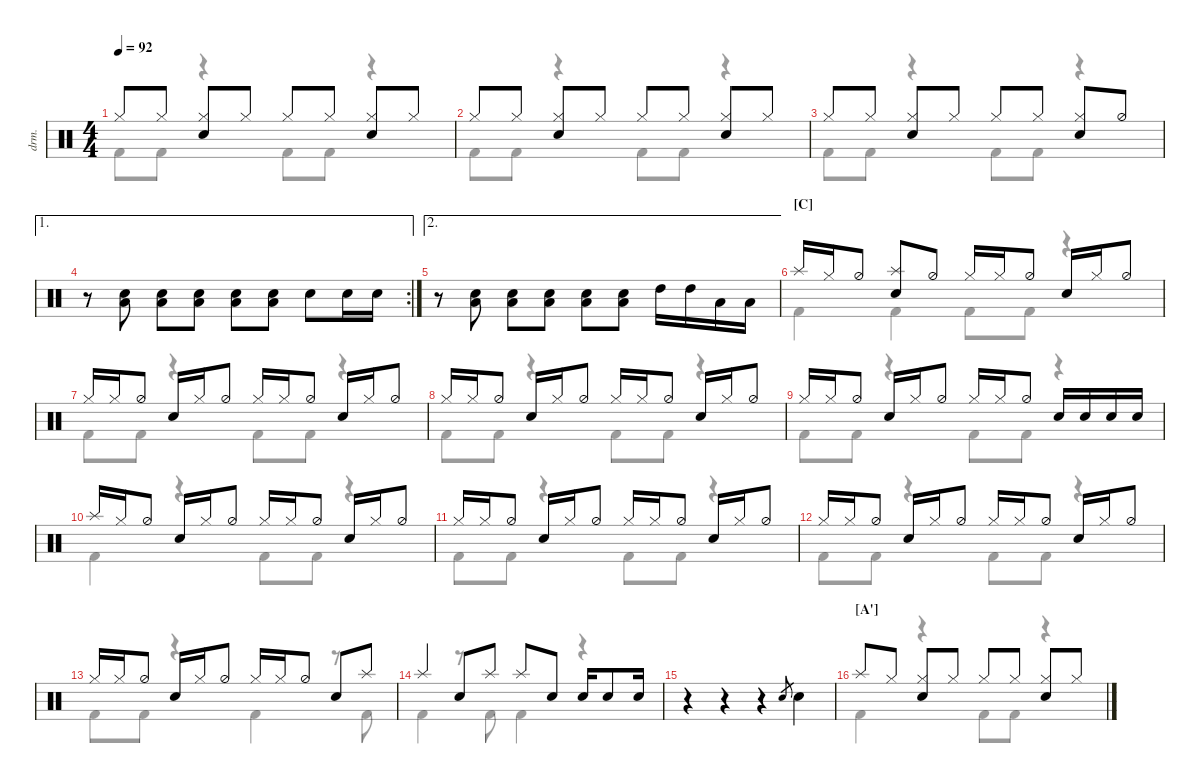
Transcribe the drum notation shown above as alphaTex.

\defaultSystemsLayout 4
\hideDynamics
\bracketExtendMode nobrackets
\track ("Drumkit" "drm.") {defaultSystemsLayout 4 instrument percussion}
\staff {score}
\articulation defaults
\voice
\ts (4 4)
\tempo 92
\clef neutral
\ks c "Hi-Hat (closed)".8{dy mf beam Up} "Hi-Hat (closed)".8{beam Up}
("Hi-Hat (closed)" "Snare (hit) 2").8{beam Up} "Hi-Hat (closed)".8{beam Up} "Hi-Hat (closed)".8{beam Up} "Hi-Hat (closed)".8{beam Up} ("Hi-Hat (closed)" "Snare (hit) 2").8{beam Up} "Hi-Hat (closed)".8{beam Up} |
"Hi-Hat (closed)".8{beam Up} "Hi-Hat (closed)".8{beam Up} ("Hi-Hat (closed)" "Snare (hit) 2").8{beam Up} "Hi-Hat (closed)".8{beam Up} "Hi-Hat (closed)".8{beam Up} "Hi-Hat (closed)".8{beam Up} ("Hi-Hat (closed)" "Snare (hit) 2").8{beam Up} "Hi-Hat (closed)".8{beam Up} |
"Hi-Hat (closed)".8{beam Up} "Hi-Hat (closed)".8{beam Up} ("Hi-Hat (closed)" "Snare (hit) 2").8{beam Up} "Hi-Hat (closed)".8{beam Up} "Hi-Hat (closed)".8{beam Up} "Hi-Hat (closed)".8{beam Up} ("Hi-Hat (closed)" "Snare (hit) 2").8{beam Up} "Hi-Hat (half)".8{beam Up} |
\ae 1
\rc 2
r.8{beam Down} ("Low Tom (hit)" "Snare (hit) 2").8{beam Down} ("Low Tom (hit)" "Snare (hit) 2").8{beam Down} ("Low Tom (hit)" "Snare (hit) 2").8{beam Down} ("Low Tom (hit)" "Snare (hit) 2").8{beam Down} ("Low Tom (hit)" "Snare (hit) 2").8{beam Down} "Snare (hit) 2".8{beam Down} "Snare (hit) 2".16{beam Down} "Snare (hit) 2".16{beam Down} |
\ae 2
r.8{beam Down} ("Low Tom (hit)" "Snare (hit) 2").8{beam Down} ("Low Tom (hit)" "Snare (hit) 2").8{beam Down} ("Low Tom (hit)" "Snare (hit) 2").8{beam Down} ("Low Tom (hit)" "Snare (hit) 2").8{beam Down} ("Low Tom (hit)" "Snare (hit) 2").8{beam Down} "High Tom (hit)".16{beam Down} "High Tom (hit)".16{beam Down} "Low Tom (hit)".16{beam Down} "Low Tom (hit)".16{beam Down} |
\section ("C" "")
"Splash (hit)".16{beam Up} "Hi-Hat (closed)".16{beam Up} "Hi-Hat (half)".8{beam Up} ("Splash (hit)" "Snare (hit) 2").8{beam Up} "Hi-Hat (half)".8{beam Up} "Hi-Hat (closed)".16{beam Up} "Hi-Hat (closed)".16{beam Up} "Hi-Hat (half)".8{beam Up} "Snare (hit) 2".16{beam Up} "Hi-Hat (closed)".16{beam Up} "Hi-Hat (half)".8{beam Up} |
"Hi-Hat (closed)".16{beam Up} "Hi-Hat (closed)".16{beam Up} "Hi-Hat (half)".8{beam Up} "Snare (hit) 2".16{beam Up} "Hi-Hat (closed)".16{beam Up} "Hi-Hat (half)".8{beam Up} "Hi-Hat (closed)".16{beam Up} "Hi-Hat (closed)".16{beam Up} "Hi-Hat (half)".8{beam Up} "Snare (hit) 2".16{beam Up} "Hi-Hat (closed)".16{beam Up} "Hi-Hat (half)".8{beam Up} |
"Hi-Hat (closed)".16{beam Up} "Hi-Hat (closed)".16{beam Up} "Hi-Hat (half)".8{beam Up} "Snare (hit) 2".16{beam Up} "Hi-Hat (closed)".16{beam Up} "Hi-Hat (half)".8{beam Up} "Hi-Hat (closed)".16{beam Up} "Hi-Hat (closed)".16{beam Up} "Hi-Hat (half)".8{beam Up} "Snare (hit) 2".16{beam Up} "Hi-Hat (closed)".16{beam Up} "Hi-Hat (half)".8{beam Up} |
"Hi-Hat (closed)".16{beam Up} "Hi-Hat (closed)".16{beam Up} "Hi-Hat (half)".8{beam Up} "Snare (hit) 2".16{beam Up} "Hi-Hat (closed)".16{beam Up} "Hi-Hat (half)".8{beam Up} "Hi-Hat (closed)".16{beam Up} "Hi-Hat (closed)".16{beam Up} "Hi-Hat (half)".8{beam Up} "Snare (hit) 2".16{beam Up} "Snare (hit) 2".16{beam Up} "Snare (hit) 2".16{beam Up} "Snare (hit) 2".16{beam Up} |
"Splash (hit)".16{beam Up} "Hi-Hat (closed)".16{beam Up} "Hi-Hat (half)".8{beam Up} "Snare (hit) 2".16{beam Up} "Hi-Hat (closed)".16{beam Up} "Hi-Hat (half)".8{beam Up} "Hi-Hat (closed)".16{beam Up} "Hi-Hat (closed)".16{beam Up} "Hi-Hat (half)".8{beam Up} "Snare (hit) 2".16{beam Up} "Hi-Hat (closed)".16{beam Up} "Hi-Hat (half)".8{beam Up} |
"Hi-Hat (closed)".16{beam Up} "Hi-Hat (closed)".16{beam Up} "Hi-Hat (half)".8{beam Up} "Snare (hit) 2".16{beam Up} "Hi-Hat (closed)".16{beam Up} "Hi-Hat (half)".8{beam Up} "Hi-Hat (closed)".16{beam Up} "Hi-Hat (closed)".16{beam Up} "Hi-Hat (half)".8{beam Up} "Snare (hit) 2".16{beam Up} "Hi-Hat (closed)".16{beam Up} "Hi-Hat (half)".8{beam Up} |
"Hi-Hat (closed)".16{beam Up} "Hi-Hat (closed)".16{beam Up} "Hi-Hat (half)".8{beam Up} "Snare (hit) 2".16{beam Up} "Hi-Hat (closed)".16{beam Up} "Hi-Hat (half)".8{beam Up} "Hi-Hat (closed)".16{beam Up} "Hi-Hat (closed)".16{beam Up} "Hi-Hat (half)".8{beam Up} "Snare (hit) 2".16{beam Up} "Hi-Hat (closed)".16{beam Up} "Hi-Hat (half)".8{beam Up} |
"Hi-Hat (closed)".16{beam Up} "Hi-Hat (closed)".16{beam Up} "Hi-Hat (half)".8{beam Up} "Snare (hit) 2".16{beam Up} "Hi-Hat (closed)".16{beam Up} "Hi-Hat (half)".8{beam Up} "Hi-Hat (closed)".16{beam Up} "Hi-Hat (closed)".16{beam Up} "Hi-Hat (half)".8{beam Up} "Snare (hit) 2".8{beam Up} "Splash (hit)".8{beam Up} |
"Splash (hit)".4{beam Up} "Snare (hit) 2".8{beam Up} "Splash (hit)".8{beam Up} "Splash (hit)".8{beam Up} "Snare (hit) 2".8{beam Up} "Snare (hit) 2".16{beam Up} "Snare (hit) 2".8{beam Up} "Snare (hit) 2".16{beam Up} |
r.4{beam Down} r.4{beam Down} r.4{beam Down} "Snare (hit) 2".8{gr beam Up} "Snare (hit) 2".4{beam Down} |
\section ("A'" "")
\scale
0.266138 "Splash (hit)".8{beam Up} "Hi-Hat (closed)".8{beam Up} ("Hi-Hat (closed)" "Snare (hit) 2").8{beam Up} "Hi-Hat (closed)".8{beam Up} "Hi-Hat (closed)".8{beam Up} "Hi-Hat (closed)".8{beam Up} ("Hi-Hat (closed)" "Snare (hit) 2").8{beam Up} "Hi-Hat (closed)".8{beam Up}
\voice
\clef neutral
\ottava regular
\simile none
\ks c "Kick (hit) 2".8{dy mf beam Down} "Kick (hit) 2".8{beam Down}
r.4{beam Down} "Kick (hit) 2".8{beam Down} "Kick (hit) 2".8{beam Down} r.4{beam Down} |
"Kick (hit) 2".8{beam Down} "Kick (hit) 2".8{beam Down} r.4{beam Down} "Kick (hit) 2".8{beam Down} "Kick (hit) 2".8{beam Down} r.4{beam Down} |
"Kick (hit) 2".8{beam Down} "Kick (hit) 2".8{beam Down} r.4{beam Down} "Kick (hit) 2".8{beam Down} "Kick (hit) 2".8{beam Down} r.4{beam Down} |
|
|
"Kick (hit) 2".4{beam Down} "Kick (hit) 2".4{beam Down} "Kick (hit) 2".8{beam Down} "Kick (hit) 2".8{beam Down} r.4{beam Down} |
"Kick (hit) 2".8{beam Down} "Kick (hit) 2".8{beam Down} r.4{beam Down} "Kick (hit) 2".8{beam Down} "Kick (hit) 2".8{beam Down} r.4{beam Down} |
"Kick (hit) 2".8{beam Down} "Kick (hit) 2".8{beam Down} r.4{beam Down} "Kick (hit) 2".8{beam Down} "Kick (hit) 2".8{beam Down} r.4{beam Down} |
"Kick (hit) 2".8{beam Down} "Kick (hit) 2".8{beam Down} r.4{beam Down} "Kick (hit) 2".8{beam Down} "Kick (hit) 2".8{beam Down} r.4{beam Down} |
"Kick (hit) 2".4{beam Down} r.4{beam Down} "Kick (hit) 2".8{beam Down} "Kick (hit) 2".8{beam Down} r.4{beam Down} |
"Kick (hit) 2".8{beam Down} "Kick (hit) 2".8{beam Down} r.4{beam Down} "Kick (hit) 2".8{beam Down} "Kick (hit) 2".8{beam Down} r.4{beam Down} |
"Kick (hit) 2".8{beam Down} "Kick (hit) 2".8{beam Down} r.4{beam Down} "Kick (hit) 2".8{beam Down} "Kick (hit) 2".8{beam Down} r.4{beam Down} |
"Kick (hit) 2".8{beam Down} "Kick (hit) 2".8{beam Down} r.4{beam Down} "Kick (hit) 2".4{beam Down} r.8{beam Down} "Kick (hit) 2".8{beam Down} |
"Kick (hit) 2".4{beam Down} r.8{beam Down} "Kick (hit) 2".8{beam Down} "Kick (hit) 2".4{beam Down} r.4{beam Down} |
|
\scale
0.266138 "Kick (hit) 2".4{beam Down} r.4{beam Down} "Kick (hit) 2".8{beam Down} "Kick (hit) 2".8{beam Down} r.4{beam Down}
